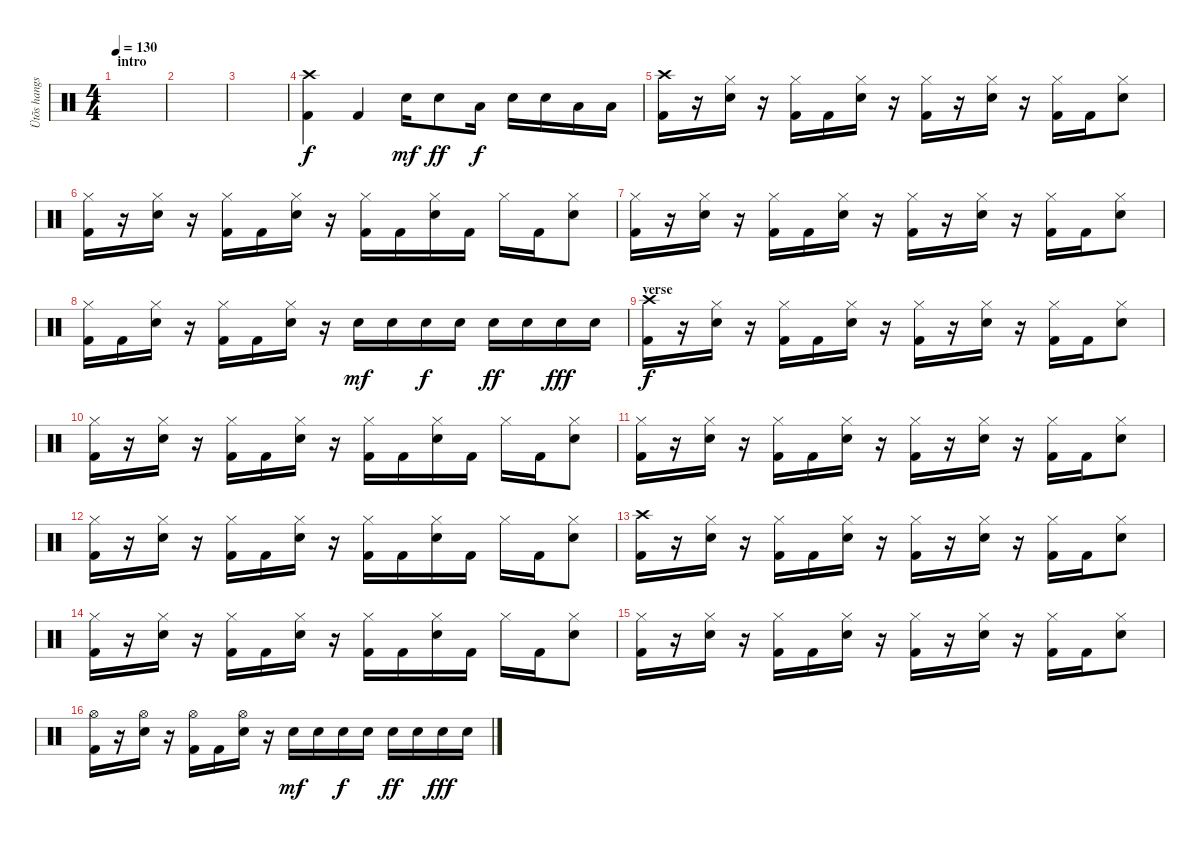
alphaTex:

\track ("Ütõs hangszer" "Ütõs hangs") {instrument percussion}
\staff {score}
\articulation defaults
\ts (4 4)
\section ("" "intro")
\tempo 130
\clef neutral
\ks c
|
|
|
("Crash high (hit)" "Kick (hit) 2").4 "Kick (hit) 2".4 "Snare (hit) 2".16{dy mf} "Snare (hit) 2".8{dy ff} "Low Tom (hit)".16{dy f} "Snare (hit) 2".16 "Snare (hit) 2".16 "Low Tom (hit)".16 "Low Tom (hit)".16 |
("Crash high (hit)" "Kick (hit) 2").16 r.16 ("Hi-Hat (closed)" "Snare (hit) 2").16 r.16 ("Hi-Hat (closed)" "Kick (hit) 2").16 "Kick (hit) 2".16 ("Hi-Hat (closed)" "Snare (hit) 2").16 r.16 ("Hi-Hat (closed)" "Kick (hit) 2").16 r.16 ("Hi-Hat (closed)" "Snare (hit) 2").16 r.16 ("Hi-Hat (closed)" "Kick (hit) 2").16 "Kick (hit) 2".16 ("Hi-Hat (closed)" "Snare (hit) 2").8 |
("Hi-Hat (closed)" "Kick (hit) 2").16 r.16 ("Hi-Hat (closed)" "Snare (hit) 2").16 r.16 ("Hi-Hat (closed)" "Kick (hit) 2").16 "Kick (hit) 2".16 ("Hi-Hat (closed)" "Snare (hit) 2").16 r.16 ("Hi-Hat (closed)" "Kick (hit) 2").16 "Kick (hit) 2".16 ("Hi-Hat (closed)" "Snare (hit) 2").16 "Kick (hit) 2".16 "Hi-Hat (closed)".16 "Kick (hit) 2".16 ("Hi-Hat (closed)" "Snare (hit) 2").8 |
("Hi-Hat (closed)" "Kick (hit) 2").16 r.16 ("Hi-Hat (closed)" "Snare (hit) 2").16 r.16 ("Hi-Hat (closed)" "Kick (hit) 2").16 "Kick (hit) 2".16 ("Hi-Hat (closed)" "Snare (hit) 2").16 r.16 ("Hi-Hat (closed)" "Kick (hit) 2").16 r.16 ("Hi-Hat (closed)" "Snare (hit) 2").16 r.16 ("Hi-Hat (closed)" "Kick (hit) 2").16 "Kick (hit) 2".16 ("Hi-Hat (closed)" "Snare (hit) 2").8 |
("Hi-Hat (closed)" "Kick (hit) 2").16 "Kick (hit) 2".16 ("Hi-Hat (closed)" "Snare (hit) 2").16 r.16 ("Hi-Hat (closed)" "Kick (hit) 2").16 "Kick (hit) 2".16 ("Hi-Hat (closed)" "Snare (hit) 2").16 r.16 "Snare (hit) 2".16{dy mf} "Snare (hit) 2".16 "Snare (hit) 2".16{dy f} "Snare (hit) 2".16 "Snare (hit) 2".16{dy ff} "Snare (hit) 2".16 "Snare (hit) 2".16{dy fff} "Snare (hit) 2".16 |
\section ("" "verse")
("Crash high (hit)" "Kick (hit) 2").16{dy f} r.16 ("Hi-Hat (closed)" "Snare (hit) 2").16 r.16 ("Hi-Hat (closed)" "Kick (hit) 2").16 "Kick (hit) 2".16 ("Hi-Hat (closed)" "Snare (hit) 2").16 r.16 ("Hi-Hat (closed)" "Kick (hit) 2").16 r.16 ("Hi-Hat (closed)" "Snare (hit) 2").16 r.16 ("Hi-Hat (closed)" "Kick (hit) 2").16 "Kick (hit) 2".16 ("Hi-Hat (closed)" "Snare (hit) 2").8 |
("Hi-Hat (closed)" "Kick (hit) 2").16 r.16 ("Hi-Hat (closed)" "Snare (hit) 2").16 r.16 ("Hi-Hat (closed)" "Kick (hit) 2").16 "Kick (hit) 2".16 ("Hi-Hat (closed)" "Snare (hit) 2").16 r.16 ("Hi-Hat (closed)" "Kick (hit) 2").16 "Kick (hit) 2".16 ("Hi-Hat (closed)" "Snare (hit) 2").16 "Kick (hit) 2".16 "Hi-Hat (closed)".16 "Kick (hit) 2".16 ("Hi-Hat (closed)" "Snare (hit) 2").8 |
("Hi-Hat (closed)" "Kick (hit) 2").16 r.16 ("Hi-Hat (closed)" "Snare (hit) 2").16 r.16 ("Hi-Hat (closed)" "Kick (hit) 2").16 "Kick (hit) 2".16 ("Hi-Hat (closed)" "Snare (hit) 2").16 r.16 ("Hi-Hat (closed)" "Kick (hit) 2").16 r.16 ("Hi-Hat (closed)" "Snare (hit) 2").16 r.16 ("Hi-Hat (closed)" "Kick (hit) 2").16 "Kick (hit) 2".16 ("Hi-Hat (closed)" "Snare (hit) 2").8 |
("Hi-Hat (closed)" "Kick (hit) 2").16 r.16 ("Hi-Hat (closed)" "Snare (hit) 2").16 r.16 ("Hi-Hat (closed)" "Kick (hit) 2").16 "Kick (hit) 2".16 ("Hi-Hat (closed)" "Snare (hit) 2").16 r.16 ("Hi-Hat (closed)" "Kick (hit) 2").16 "Kick (hit) 2".16 ("Hi-Hat (closed)" "Snare (hit) 2").16 "Kick (hit) 2".16 "Hi-Hat (closed)".16 "Kick (hit) 2".16 ("Hi-Hat (closed)" "Snare (hit) 2").8 |
("Crash high (hit)" "Kick (hit) 2").16 r.16 ("Hi-Hat (closed)" "Snare (hit) 2").16 r.16 ("Hi-Hat (closed)" "Kick (hit) 2").16 "Kick (hit) 2".16 ("Hi-Hat (closed)" "Snare (hit) 2").16 r.16 ("Hi-Hat (closed)" "Kick (hit) 2").16 r.16 ("Hi-Hat (closed)" "Snare (hit) 2").16 r.16 ("Hi-Hat (closed)" "Kick (hit) 2").16 "Kick (hit) 2".16 ("Hi-Hat (closed)" "Snare (hit) 2").8 |
("Hi-Hat (closed)" "Kick (hit) 2").16 r.16 ("Hi-Hat (closed)" "Snare (hit) 2").16 r.16 ("Hi-Hat (closed)" "Kick (hit) 2").16 "Kick (hit) 2".16 ("Hi-Hat (closed)" "Snare (hit) 2").16 r.16 ("Hi-Hat (closed)" "Kick (hit) 2").16 "Kick (hit) 2".16 ("Hi-Hat (closed)" "Snare (hit) 2").16 "Kick (hit) 2".16 "Hi-Hat (closed)".16 "Kick (hit) 2".16 ("Hi-Hat (closed)" "Snare (hit) 2").8 |
("Hi-Hat (closed)" "Kick (hit) 2").16 r.16 ("Hi-Hat (closed)" "Snare (hit) 2").16 r.16 ("Hi-Hat (closed)" "Kick (hit) 2").16 "Kick (hit) 2".16 ("Hi-Hat (closed)" "Snare (hit) 2").16 r.16 ("Hi-Hat (closed)" "Kick (hit) 2").16 r.16 ("Hi-Hat (closed)" "Snare (hit) 2").16 r.16 ("Hi-Hat (closed)" "Kick (hit) 2").16 "Kick (hit) 2".16 ("Hi-Hat (closed)" "Snare (hit) 2").8 |
("Hi-Hat (open)" "Kick (hit) 2").16 r.16 ("Hi-Hat (open)" "Snare (hit) 2").16 r.16 ("Hi-Hat (open)" "Kick (hit) 2").16 "Kick (hit) 2".16 ("Hi-Hat (open)" "Snare (hit) 2").16 r.16 "Snare (hit) 2".16{dy mf} "Snare (hit) 2".16 "Snare (hit) 2".16{dy f} "Snare (hit) 2".16 "Snare (hit) 2".16{dy ff} "Snare (hit) 2".16 "Snare (hit) 2".16{dy fff} "Snare (hit) 2".16
